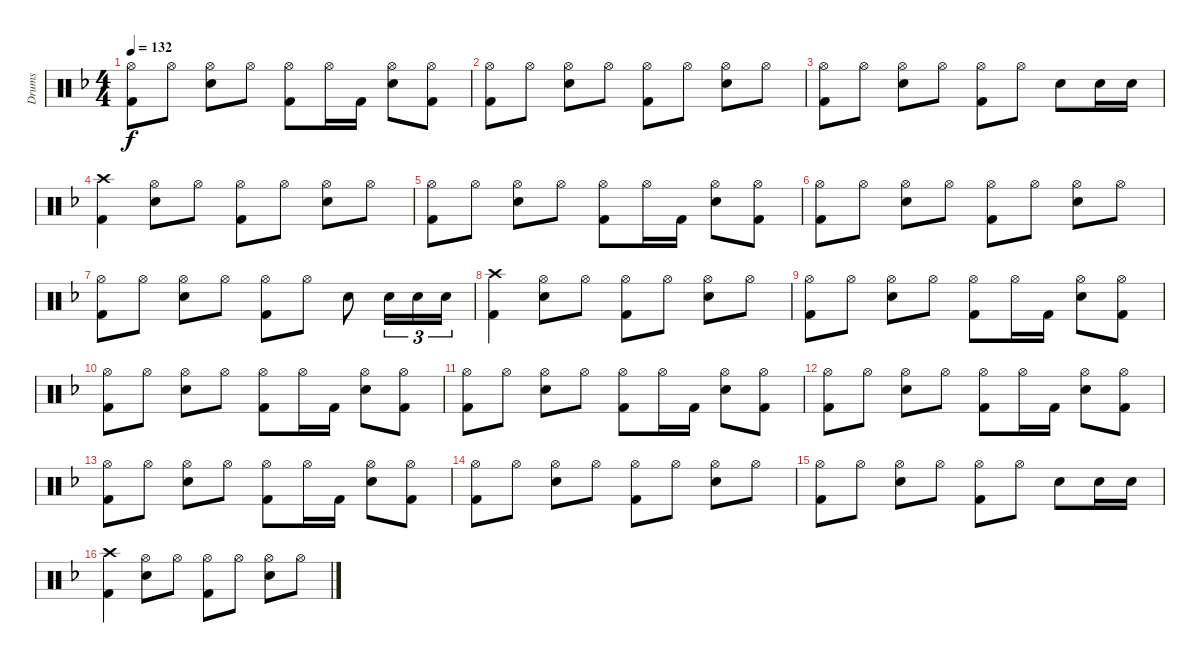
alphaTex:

\track ("Drums " "Drums ") {instrument percussion}
\staff {score}
\articulation defaults
\ts (4 4)
\tempo 132
\clef neutral
\ks dminor
("Kick (hit) 2" "Hi-Hat (open)").8{dy f} "Hi-Hat (open)".8 ("Snare (hit) 2" "Hi-Hat (open)").8 "Hi-Hat (open)".8 ("Kick (hit) 2" "Hi-Hat (open)").8 "Hi-Hat (open)".16 "Kick (hit) 2".16 ("Snare (hit) 2" "Hi-Hat (open)").8 ("Kick (hit) 2" "Hi-Hat (open)").8 |
("Kick (hit) 2" "Hi-Hat (open)").8 "Hi-Hat (open)".8 ("Snare (hit) 2" "Hi-Hat (open)").8 "Hi-Hat (open)".8 ("Kick (hit) 2" "Hi-Hat (open)").8 "Hi-Hat (open)".8 ("Snare (hit) 2" "Hi-Hat (open)").8 "Hi-Hat (open)".8 |
("Kick (hit) 2" "Hi-Hat (open)").8 "Hi-Hat (open)".8 ("Snare (hit) 2" "Hi-Hat (open)").8 "Hi-Hat (open)".8 ("Kick (hit) 2" "Hi-Hat (open)").8 "Hi-Hat (open)".8 "Snare (hit) 2".8 "Snare (hit) 2".16 "Snare (hit) 2".16 |
("Kick (hit) 2" "Crash high (hit)").4 ("Snare (hit) 2" "Hi-Hat (open)").8 "Hi-Hat (open)".8 ("Kick (hit) 2" "Hi-Hat (open)").8 "Hi-Hat (open)".8 ("Snare (hit) 2" "Hi-Hat (open)").8 "Hi-Hat (open)".8 |
("Kick (hit) 2" "Hi-Hat (open)").8 "Hi-Hat (open)".8 ("Snare (hit) 2" "Hi-Hat (open)").8 "Hi-Hat (open)".8 ("Kick (hit) 2" "Hi-Hat (open)").8 "Hi-Hat (open)".16 "Kick (hit) 2".16 ("Snare (hit) 2" "Hi-Hat (open)").8 ("Kick (hit) 2" "Hi-Hat (open)").8 |
("Kick (hit) 2" "Hi-Hat (open)").8 "Hi-Hat (open)".8 ("Snare (hit) 2" "Hi-Hat (open)").8 "Hi-Hat (open)".8 ("Kick (hit) 2" "Hi-Hat (open)").8 "Hi-Hat (open)".8 ("Snare (hit) 2" "Hi-Hat (open)").8 "Hi-Hat (open)".8 |
("Kick (hit) 2" "Hi-Hat (open)").8 "Hi-Hat (open)".8 ("Snare (hit) 2" "Hi-Hat (open)").8 "Hi-Hat (open)".8 ("Kick (hit) 2" "Hi-Hat (open)").8 "Hi-Hat (open)".8 "Snare (hit) 2".8 "Snare (hit) 2".16{tu (3 2)} "Snare (hit) 2".16{tu (3 2)} "Snare (hit) 2".16{tu (3 2)} |
("Kick (hit) 2" "Crash high (hit)").4 ("Snare (hit) 2" "Hi-Hat (open)").8 "Hi-Hat (open)".8 ("Kick (hit) 2" "Hi-Hat (open)").8 "Hi-Hat (open)".8 ("Snare (hit) 2" "Hi-Hat (open)").8 "Hi-Hat (open)".8 |
("Kick (hit) 2" "Hi-Hat (open)").8 "Hi-Hat (open)".8 ("Snare (hit) 2" "Hi-Hat (open)").8 "Hi-Hat (open)".8 ("Kick (hit) 2" "Hi-Hat (open)").8 "Hi-Hat (open)".16 "Kick (hit) 2".16 ("Snare (hit) 2" "Hi-Hat (open)").8 ("Kick (hit) 2" "Hi-Hat (open)").8 |
("Kick (hit) 2" "Hi-Hat (open)").8 "Hi-Hat (open)".8 ("Snare (hit) 2" "Hi-Hat (open)").8 "Hi-Hat (open)".8 ("Kick (hit) 2" "Hi-Hat (open)").8 "Hi-Hat (open)".16 "Kick (hit) 2".16 ("Snare (hit) 2" "Hi-Hat (open)").8 ("Kick (hit) 2" "Hi-Hat (open)").8 |
("Kick (hit) 2" "Hi-Hat (open)").8 "Hi-Hat (open)".8 ("Snare (hit) 2" "Hi-Hat (open)").8 "Hi-Hat (open)".8 ("Kick (hit) 2" "Hi-Hat (open)").8 "Hi-Hat (open)".16 "Kick (hit) 2".16 ("Snare (hit) 2" "Hi-Hat (open)").8 ("Kick (hit) 2" "Hi-Hat (open)").8 |
("Kick (hit) 2" "Hi-Hat (open)").8 "Hi-Hat (open)".8 ("Snare (hit) 2" "Hi-Hat (open)").8 "Hi-Hat (open)".8 ("Kick (hit) 2" "Hi-Hat (open)").8 "Hi-Hat (open)".16 "Kick (hit) 2".16 ("Snare (hit) 2" "Hi-Hat (open)").8 ("Kick (hit) 2" "Hi-Hat (open)").8 |
("Kick (hit) 2" "Hi-Hat (open)").8 "Hi-Hat (open)".8 ("Snare (hit) 2" "Hi-Hat (open)").8 "Hi-Hat (open)".8 ("Kick (hit) 2" "Hi-Hat (open)").8 "Hi-Hat (open)".16 "Kick (hit) 2".16 ("Snare (hit) 2" "Hi-Hat (open)").8 ("Kick (hit) 2" "Hi-Hat (open)").8 |
("Kick (hit) 2" "Hi-Hat (open)").8 "Hi-Hat (open)".8 ("Snare (hit) 2" "Hi-Hat (open)").8 "Hi-Hat (open)".8 ("Kick (hit) 2" "Hi-Hat (open)").8 "Hi-Hat (open)".8 ("Snare (hit) 2" "Hi-Hat (open)").8 "Hi-Hat (open)".8 |
("Kick (hit) 2" "Hi-Hat (open)").8 "Hi-Hat (open)".8 ("Snare (hit) 2" "Hi-Hat (open)").8 "Hi-Hat (open)".8 ("Kick (hit) 2" "Hi-Hat (open)").8 "Hi-Hat (open)".8 "Snare (hit) 2".8 "Snare (hit) 2".16 "Snare (hit) 2".16 |
("Kick (hit) 2" "Crash high (hit)").4 ("Snare (hit) 2" "Hi-Hat (open)").8 "Hi-Hat (open)".8 ("Kick (hit) 2" "Hi-Hat (open)").8 "Hi-Hat (open)".8 ("Snare (hit) 2" "Hi-Hat (open)").8 "Hi-Hat (open)".8
